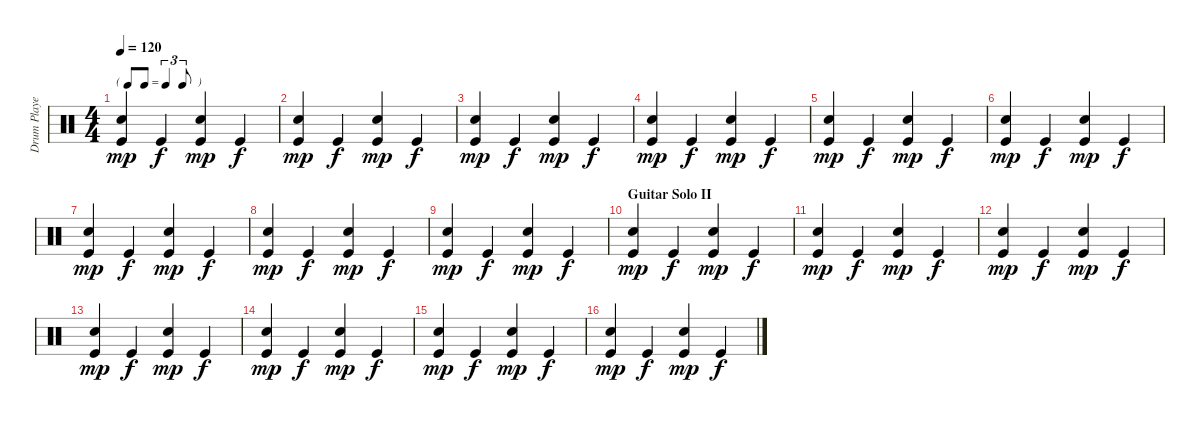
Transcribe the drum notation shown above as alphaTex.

\track ("Drum Player" "Drum Playe") {instrument percussion}
\staff {score}
\articulation defaults
\ts (4 4)
\tf triplet8th
\tempo 120
\clef neutral
\ks c
("Hand Clap (hit)" "Kick (hit)").4{dy mp} "Kick (hit)".4{dy f} ("Hand Clap (hit)" "Kick (hit)").4{dy mp} "Kick (hit)".4{dy f} |
("Hand Clap (hit)" "Kick (hit)").4{dy mp} "Kick (hit)".4{dy f} ("Hand Clap (hit)" "Kick (hit)").4{dy mp} "Kick (hit)".4{dy f} |
("Hand Clap (hit)" "Kick (hit)").4{dy mp} "Kick (hit)".4{dy f} ("Hand Clap (hit)" "Kick (hit)").4{dy mp} "Kick (hit)".4{dy f} |
("Hand Clap (hit)" "Kick (hit)").4{dy mp} "Kick (hit)".4{dy f} ("Hand Clap (hit)" "Kick (hit)").4{dy mp} "Kick (hit)".4{dy f} |
("Hand Clap (hit)" "Kick (hit)").4{dy mp} "Kick (hit)".4{dy f} ("Hand Clap (hit)" "Kick (hit)").4{dy mp} "Kick (hit)".4{dy f} |
("Hand Clap (hit)" "Kick (hit)").4{dy mp} "Kick (hit)".4{dy f} ("Hand Clap (hit)" "Kick (hit)").4{dy mp} "Kick (hit)".4{dy f} |
("Hand Clap (hit)" "Kick (hit)").4{dy mp} "Kick (hit)".4{dy f} ("Hand Clap (hit)" "Kick (hit)").4{dy mp} "Kick (hit)".4{dy f} |
("Hand Clap (hit)" "Kick (hit)").4{dy mp} "Kick (hit)".4{dy f} ("Hand Clap (hit)" "Kick (hit)").4{dy mp} "Kick (hit)".4{dy f} |
("Hand Clap (hit)" "Kick (hit)").4{dy mp} "Kick (hit)".4{dy f} ("Hand Clap (hit)" "Kick (hit)").4{dy mp} "Kick (hit)".4{dy f} |
\section ("" "Guitar Solo II")
("Hand Clap (hit)" "Kick (hit)").4{dy mp} "Kick (hit)".4{dy f} ("Hand Clap (hit)" "Kick (hit)").4{dy mp} "Kick (hit)".4{dy f} |
("Hand Clap (hit)" "Kick (hit)").4{dy mp} "Kick (hit)".4{dy f} ("Hand Clap (hit)" "Kick (hit)").4{dy mp} "Kick (hit)".4{dy f} |
("Hand Clap (hit)" "Kick (hit)").4{dy mp} "Kick (hit)".4{dy f} ("Hand Clap (hit)" "Kick (hit)").4{dy mp} "Kick (hit)".4{dy f} |
("Hand Clap (hit)" "Kick (hit)").4{dy mp} "Kick (hit)".4{dy f} ("Hand Clap (hit)" "Kick (hit)").4{dy mp} "Kick (hit)".4{dy f} |
("Hand Clap (hit)" "Kick (hit)").4{dy mp} "Kick (hit)".4{dy f} ("Hand Clap (hit)" "Kick (hit)").4{dy mp} "Kick (hit)".4{dy f} |
("Hand Clap (hit)" "Kick (hit)").4{dy mp} "Kick (hit)".4{dy f} ("Hand Clap (hit)" "Kick (hit)").4{dy mp} "Kick (hit)".4{dy f} |
("Hand Clap (hit)" "Kick (hit)").4{dy mp} "Kick (hit)".4{dy f} ("Hand Clap (hit)" "Kick (hit)").4{dy mp} "Kick (hit)".4{dy f}
